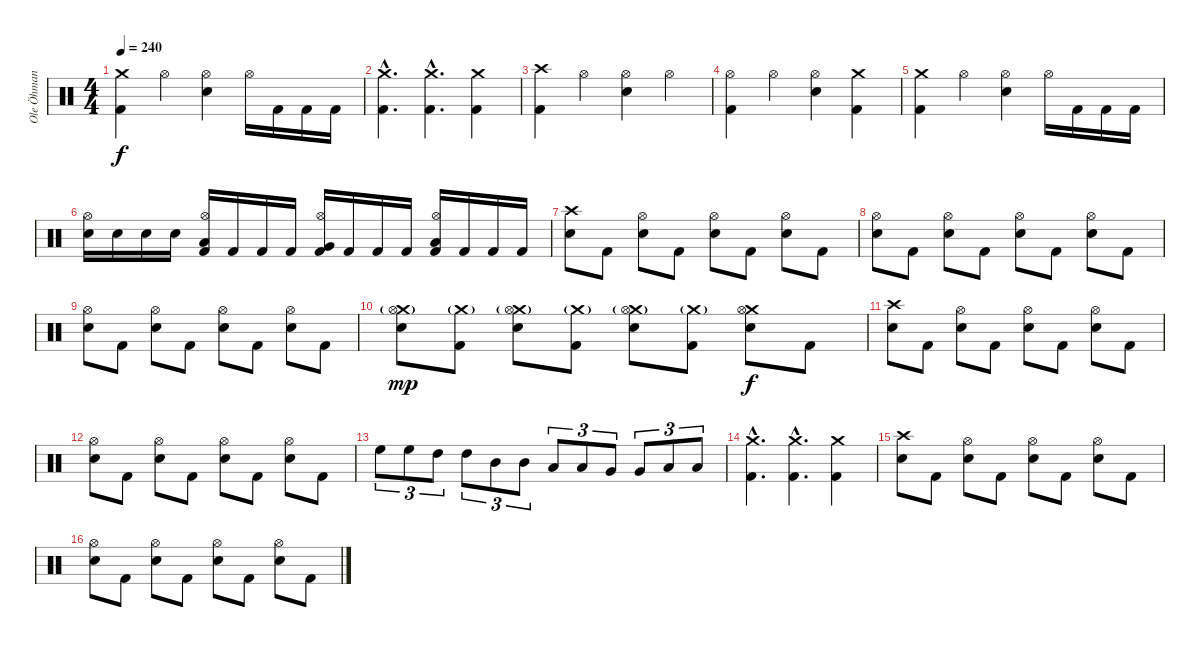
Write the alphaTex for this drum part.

\track ("Ole Öhman" "Ole Öhman") {instrument percussion}
\staff {score}
\articulation defaults
\ts (4 4)
\tempo 240
\clef neutral
\ks c
("Crash medium (hit)" "Kick (hit) 2").4{dy f} "Hi-Hat (open)".4 ("Hi-Hat (open)" "Electric Snare (hit)").4 "Hi-Hat (open)".16 "Kick (hit) 2".16 "Kick (hit) 2".16 "Kick (hit) 2".16 |
("Crash medium (hit)"{hac} "Kick (hit) 2"{hac}).4{d} ("Crash medium (hit)"{hac} "Kick (hit) 2"{hac}).4{d} ("Crash medium (hit)" "Kick (hit) 2").4 |
("Crash high (hit)" "Kick (hit) 2").4 "Hi-Hat (open)".4 ("Hi-Hat (open)" "Electric Snare (hit)").4 "Hi-Hat (open)".4 |
("Hi-Hat (open)" "Kick (hit) 2").4 "Hi-Hat (open)".4 ("Hi-Hat (open)" "Electric Snare (hit)").4 ("Crash medium (hit)" "Kick (hit) 2").4 |
("Crash medium (hit)" "Kick (hit) 2").4 "Hi-Hat (open)".4 ("Hi-Hat (open)" "Electric Snare (hit)").4 "Hi-Hat (open)".16 "Kick (hit) 2".16 "Kick (hit) 2".16 "Kick (hit) 2".16 |
("Hi-Hat (open)" "Electric Snare (hit)").16 "Electric Snare (hit)".16 "Electric Snare (hit)".16 "Electric Snare (hit)".16 ("Hi-Hat (open)" "Low Tom (hit)" "Kick (hit) 2").16 "Kick (hit) 2".16 "Kick (hit) 2".16 "Kick (hit) 2".16 ("Hi-Hat (open)" "Very Low Tom (hit)" "Kick (hit) 2").16 "Kick (hit) 2".16 "Kick (hit) 2".16 "Kick (hit) 2".16 ("Hi-Hat (open)" "Low Floor Tom (hit)" "Kick (hit) 2").16 "Kick (hit) 2".16 "Kick (hit) 2".16 "Kick (hit) 2".16 |
("Crash high (hit)" "Electric Snare (hit)").8 "Kick (hit) 2".8 ("Hi-Hat (open)" "Electric Snare (hit)").8 "Kick (hit) 2".8 ("Hi-Hat (open)" "Electric Snare (hit)").8 "Kick (hit) 2".8 ("Hi-Hat (open)" "Electric Snare (hit)").8 "Kick (hit) 2".8 |
("Hi-Hat (open)" "Electric Snare (hit)").8 "Kick (hit) 2".8 ("Hi-Hat (open)" "Electric Snare (hit)").8 "Kick (hit) 2".8 ("Hi-Hat (open)" "Electric Snare (hit)").8 "Kick (hit) 2".8 ("Hi-Hat (open)" "Electric Snare (hit)").8 "Kick (hit) 2".8 |
("Hi-Hat (open)" "Electric Snare (hit)").8 "Kick (hit) 2".8 ("Hi-Hat (open)" "Electric Snare (hit)").8 "Kick (hit) 2".8 ("Hi-Hat (open)" "Electric Snare (hit)").8 "Kick (hit) 2".8 ("Hi-Hat (open)" "Electric Snare (hit)").8 "Kick (hit) 2".8 |
("Crash medium (hit)"{g} "Hi-Hat (open)" "Electric Snare (hit)").8{dy mp} ("Crash medium (hit)"{g} "Kick (hit) 2").8 ("Crash medium (hit)"{g} "Hi-Hat (open)" "Electric Snare (hit)").8 ("Crash medium (hit)"{g} "Kick (hit) 2").8 ("Crash medium (hit)"{g} "Hi-Hat (open)" "Electric Snare (hit)").8 ("Crash medium (hit)"{g} "Kick (hit) 2").8 ("Crash medium (hit)" "Hi-Hat (open)" "Electric Snare (hit)").8{dy f} "Kick (hit) 2".8 |
("Crash high (hit)" "Electric Snare (hit)").8 "Kick (hit) 2".8 ("Hi-Hat (open)" "Electric Snare (hit)").8 "Kick (hit) 2".8 ("Hi-Hat (open)" "Electric Snare (hit)").8 "Kick (hit) 2".8 ("Hi-Hat (open)" "Electric Snare (hit)").8 "Kick (hit) 2".8 |
("Hi-Hat (open)" "Electric Snare (hit)").8 "Kick (hit) 2".8 ("Hi-Hat (open)" "Electric Snare (hit)").8 "Kick (hit) 2".8 ("Hi-Hat (open)" "Electric Snare (hit)").8 "Kick (hit) 2".8 ("Hi-Hat (open)" "Electric Snare (hit)").8 "Kick (hit) 2".8 |
"High Floor Tom (hit)".8{tu (3 2)} "High Floor Tom (hit)".8{tu (3 2)} "High Tom (hit)".8{tu (3 2)} "High Tom (hit)".8{tu (3 2)} "Mid Tom (hit)".8{tu (3 2)} "Mid Tom (hit)".8{tu (3 2)} "Low Tom (hit)".8{tu (3 2)} "Low Tom (hit)".8{tu (3 2)} "Very Low Tom (hit)".8{tu (3 2)} "Very Low Tom (hit)".8{tu (3 2)} "Low Floor Tom (hit)".8{tu (3 2)} "Low Floor Tom (hit)".8{tu (3 2)} |
("Crash medium (hit)"{hac} "Kick (hit) 2"{hac}).4{d} ("Crash medium (hit)"{hac} "Kick (hit) 2"{hac}).4{d} ("Crash medium (hit)" "Kick (hit) 2").4 |
("Crash high (hit)" "Electric Snare (hit)").8 "Kick (hit) 2".8 ("Hi-Hat (open)" "Electric Snare (hit)").8 "Kick (hit) 2".8 ("Hi-Hat (open)" "Electric Snare (hit)").8 "Kick (hit) 2".8 ("Hi-Hat (open)" "Electric Snare (hit)").8 "Kick (hit) 2".8 |
("Hi-Hat (open)" "Electric Snare (hit)").8 "Kick (hit) 2".8 ("Hi-Hat (open)" "Electric Snare (hit)").8 "Kick (hit) 2".8 ("Hi-Hat (open)" "Electric Snare (hit)").8 "Kick (hit) 2".8 ("Hi-Hat (open)" "Electric Snare (hit)").8 "Kick (hit) 2".8
